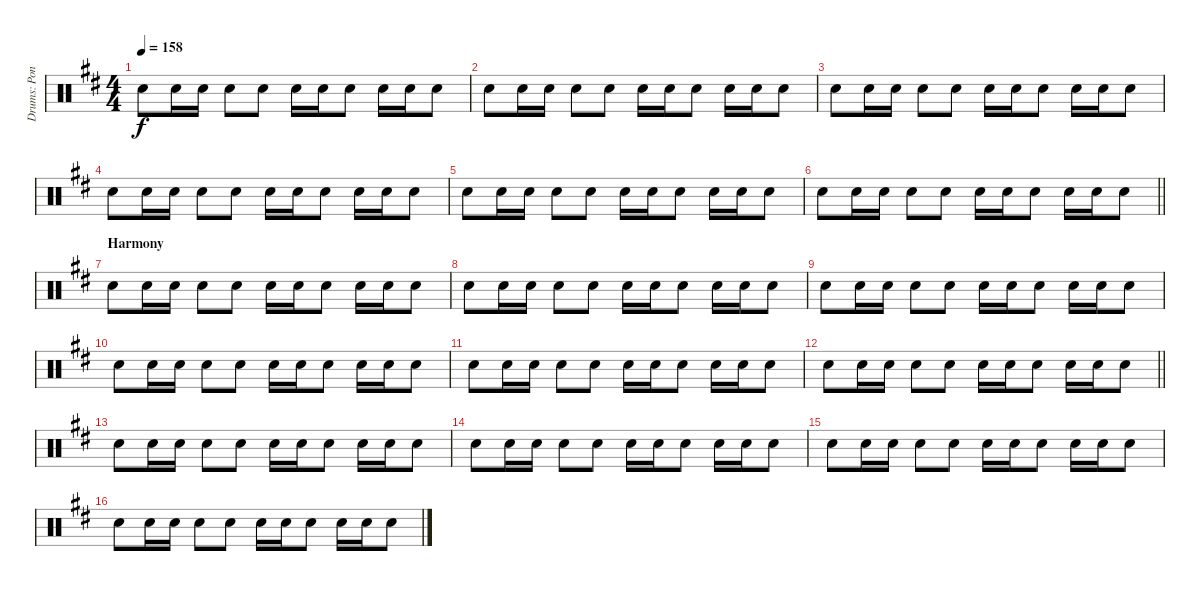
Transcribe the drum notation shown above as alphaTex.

\track ("Drums: Pontus Jansson" "Drums: Pon") {instrument percussion}
\staff {score}
\articulation defaults
\ts (4 4)
\tempo 158
\clef neutral
\ks bminor "Electric Snare (hit)".8{dy f} "Electric Snare (hit)".16 "Electric Snare (hit)".16 "Electric Snare (hit)".8 "Electric Snare (hit)".8 "Electric Snare (hit)".16 "Electric Snare (hit)".16 "Electric Snare (hit)".8 "Electric Snare (hit)".16 "Electric Snare (hit)".16 "Electric Snare (hit)".8
|
"Electric Snare (hit)".8 "Electric Snare (hit)".16 "Electric Snare (hit)".16 "Electric Snare (hit)".8 "Electric Snare (hit)".8 "Electric Snare (hit)".16 "Electric Snare (hit)".16 "Electric Snare (hit)".8 "Electric Snare (hit)".16 "Electric Snare (hit)".16 "Electric Snare (hit)".8 |
"Electric Snare (hit)".8 "Electric Snare (hit)".16 "Electric Snare (hit)".16 "Electric Snare (hit)".8 "Electric Snare (hit)".8 "Electric Snare (hit)".16 "Electric Snare (hit)".16 "Electric Snare (hit)".8 "Electric Snare (hit)".16 "Electric Snare (hit)".16 "Electric Snare (hit)".8 |
"Electric Snare (hit)".8 "Electric Snare (hit)".16 "Electric Snare (hit)".16 "Electric Snare (hit)".8 "Electric Snare (hit)".8 "Electric Snare (hit)".16 "Electric Snare (hit)".16 "Electric Snare (hit)".8 "Electric Snare (hit)".16 "Electric Snare (hit)".16 "Electric Snare (hit)".8 |
"Electric Snare (hit)".8 "Electric Snare (hit)".16 "Electric Snare (hit)".16 "Electric Snare (hit)".8 "Electric Snare (hit)".8 "Electric Snare (hit)".16 "Electric Snare (hit)".16 "Electric Snare (hit)".8 "Electric Snare (hit)".16 "Electric Snare (hit)".16 "Electric Snare (hit)".8 |
\barLineRight lightlight "Electric Snare (hit)".8 "Electric Snare (hit)".16 "Electric Snare (hit)".16 "Electric Snare (hit)".8 "Electric Snare (hit)".8 "Electric Snare (hit)".16 "Electric Snare (hit)".16 "Electric Snare (hit)".8 "Electric Snare (hit)".16 "Electric Snare (hit)".16 "Electric Snare (hit)".8
|
\section ("" "Harmony")
"Electric Snare (hit)".8 "Electric Snare (hit)".16 "Electric Snare (hit)".16 "Electric Snare (hit)".8 "Electric Snare (hit)".8 "Electric Snare (hit)".16 "Electric Snare (hit)".16 "Electric Snare (hit)".8 "Electric Snare (hit)".16 "Electric Snare (hit)".16 "Electric Snare (hit)".8 |
"Electric Snare (hit)".8 "Electric Snare (hit)".16 "Electric Snare (hit)".16 "Electric Snare (hit)".8 "Electric Snare (hit)".8 "Electric Snare (hit)".16 "Electric Snare (hit)".16 "Electric Snare (hit)".8 "Electric Snare (hit)".16 "Electric Snare (hit)".16 "Electric Snare (hit)".8 |
"Electric Snare (hit)".8 "Electric Snare (hit)".16 "Electric Snare (hit)".16 "Electric Snare (hit)".8 "Electric Snare (hit)".8 "Electric Snare (hit)".16 "Electric Snare (hit)".16 "Electric Snare (hit)".8 "Electric Snare (hit)".16 "Electric Snare (hit)".16 "Electric Snare (hit)".8 |
"Electric Snare (hit)".8 "Electric Snare (hit)".16 "Electric Snare (hit)".16 "Electric Snare (hit)".8 "Electric Snare (hit)".8 "Electric Snare (hit)".16 "Electric Snare (hit)".16 "Electric Snare (hit)".8 "Electric Snare (hit)".16 "Electric Snare (hit)".16 "Electric Snare (hit)".8 |
"Electric Snare (hit)".8 "Electric Snare (hit)".16 "Electric Snare (hit)".16 "Electric Snare (hit)".8 "Electric Snare (hit)".8 "Electric Snare (hit)".16 "Electric Snare (hit)".16 "Electric Snare (hit)".8 "Electric Snare (hit)".16 "Electric Snare (hit)".16 "Electric Snare (hit)".8 |
\barLineRight lightlight "Electric Snare (hit)".8 "Electric Snare (hit)".16 "Electric Snare (hit)".16 "Electric Snare (hit)".8 "Electric Snare (hit)".8 "Electric Snare (hit)".16 "Electric Snare (hit)".16 "Electric Snare (hit)".8 "Electric Snare (hit)".16 "Electric Snare (hit)".16 "Electric Snare (hit)".8
|
"Electric Snare (hit)".8 "Electric Snare (hit)".16 "Electric Snare (hit)".16 "Electric Snare (hit)".8 "Electric Snare (hit)".8 "Electric Snare (hit)".16 "Electric Snare (hit)".16 "Electric Snare (hit)".8 "Electric Snare (hit)".16 "Electric Snare (hit)".16 "Electric Snare (hit)".8 |
"Electric Snare (hit)".8 "Electric Snare (hit)".16 "Electric Snare (hit)".16 "Electric Snare (hit)".8 "Electric Snare (hit)".8 "Electric Snare (hit)".16 "Electric Snare (hit)".16 "Electric Snare (hit)".8 "Electric Snare (hit)".16 "Electric Snare (hit)".16 "Electric Snare (hit)".8 |
"Electric Snare (hit)".8 "Electric Snare (hit)".16 "Electric Snare (hit)".16 "Electric Snare (hit)".8 "Electric Snare (hit)".8 "Electric Snare (hit)".16 "Electric Snare (hit)".16 "Electric Snare (hit)".8 "Electric Snare (hit)".16 "Electric Snare (hit)".16 "Electric Snare (hit)".8 |
"Electric Snare (hit)".8 "Electric Snare (hit)".16 "Electric Snare (hit)".16 "Electric Snare (hit)".8 "Electric Snare (hit)".8 "Electric Snare (hit)".16 "Electric Snare (hit)".16 "Electric Snare (hit)".8 "Electric Snare (hit)".16 "Electric Snare (hit)".16 "Electric Snare (hit)".8
